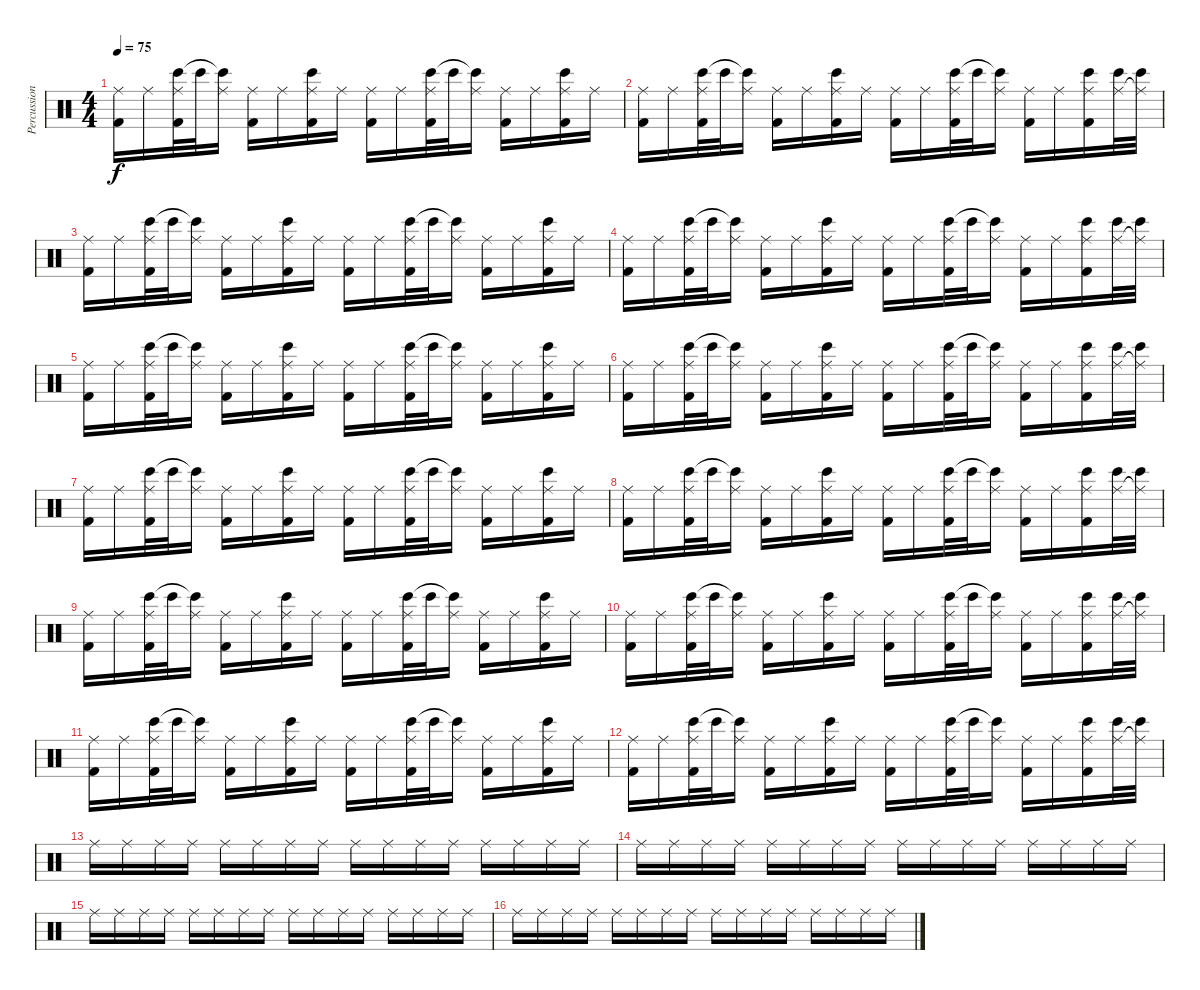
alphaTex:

\track ("Percussion" "Percussion") {instrument percussion}
\staff {score}
\articulation defaults
\ts (4 4)
\tempo 75
\clef neutral
\ks c
("Ride (middle)" "Kick (hit) 2").16{dy f} "Ride (middle)".16 ("Ride (middle)" "Bongo High (hit)" "Kick (hit) 2").32 "Bongo High (hit)".32 ("Ride (middle)" "Bongo High (hit)"{t}).16 ("Ride (middle)" "Kick (hit) 2").16 "Ride (middle)".16 ("Ride (middle)" "Bongo High (hit)" "Kick (hit) 2").16 "Ride (middle)".16 ("Ride (middle)" "Kick (hit) 2").16 "Ride (middle)".16 ("Ride (middle)" "Bongo High (hit)" "Kick (hit) 2").32 "Bongo High (hit)".32 ("Ride (middle)" "Bongo High (hit)"{t}).16 ("Ride (middle)" "Kick (hit) 2").16 "Ride (middle)".16 ("Ride (middle)" "Bongo High (hit)" "Kick (hit) 2").16 "Ride (middle)".16 |
("Ride (middle)" "Kick (hit) 2").16 "Ride (middle)".16 ("Ride (middle)" "Bongo High (hit)" "Kick (hit) 2").32 "Bongo High (hit)".32 ("Ride (middle)" "Bongo High (hit)"{t}).16 ("Ride (middle)" "Kick (hit) 2").16 "Ride (middle)".16 ("Ride (middle)" "Bongo High (hit)" "Kick (hit) 2").16 "Ride (middle)".16 ("Ride (middle)" "Kick (hit) 2").16 "Ride (middle)".16 ("Ride (middle)" "Bongo High (hit)" "Kick (hit) 2").32 "Bongo High (hit)".32 ("Ride (middle)" "Bongo High (hit)"{t}).16 ("Ride (middle)" "Kick (hit) 2").16 "Ride (middle)".16 ("Ride (middle)" "Bongo High (hit)" "Kick (hit) 2").16 ("Ride (middle)" "Bongo High (hit)").32 ("Ride (middle)"{t} "Bongo High (hit)").32 |
("Ride (middle)" "Kick (hit) 2").16 "Ride (middle)".16 ("Ride (middle)" "Bongo High (hit)" "Kick (hit) 2").32 "Bongo High (hit)".32 ("Ride (middle)" "Bongo High (hit)"{t}).16 ("Ride (middle)" "Kick (hit) 2").16 "Ride (middle)".16 ("Ride (middle)" "Bongo High (hit)" "Kick (hit) 2").16 "Ride (middle)".16 ("Ride (middle)" "Kick (hit) 2").16 "Ride (middle)".16 ("Ride (middle)" "Bongo High (hit)" "Kick (hit) 2").32 "Bongo High (hit)".32 ("Ride (middle)" "Bongo High (hit)"{t}).16 ("Ride (middle)" "Kick (hit) 2").16 "Ride (middle)".16 ("Ride (middle)" "Bongo High (hit)" "Kick (hit) 2").16 "Ride (middle)".16 |
("Ride (middle)" "Kick (hit) 2").16 "Ride (middle)".16 ("Ride (middle)" "Bongo High (hit)" "Kick (hit) 2").32 "Bongo High (hit)".32 ("Ride (middle)" "Bongo High (hit)"{t}).16 ("Ride (middle)" "Kick (hit) 2").16 "Ride (middle)".16 ("Ride (middle)" "Bongo High (hit)" "Kick (hit) 2").16 "Ride (middle)".16 ("Ride (middle)" "Kick (hit) 2").16 "Ride (middle)".16 ("Ride (middle)" "Bongo High (hit)" "Kick (hit) 2").32 "Bongo High (hit)".32 ("Ride (middle)" "Bongo High (hit)"{t}).16 ("Ride (middle)" "Kick (hit) 2").16 "Ride (middle)".16 ("Ride (middle)" "Bongo High (hit)" "Kick (hit) 2").16 ("Ride (middle)" "Bongo High (hit)").32 ("Ride (middle)"{t} "Bongo High (hit)").32 |
("Ride (middle)" "Kick (hit) 2").16 "Ride (middle)".16 ("Ride (middle)" "Bongo High (hit)" "Kick (hit) 2").32 "Bongo High (hit)".32 ("Ride (middle)" "Bongo High (hit)"{t}).16 ("Ride (middle)" "Kick (hit) 2").16 "Ride (middle)".16 ("Ride (middle)" "Bongo High (hit)" "Kick (hit) 2").16 "Ride (middle)".16 ("Ride (middle)" "Kick (hit) 2").16 "Ride (middle)".16 ("Ride (middle)" "Bongo High (hit)" "Kick (hit) 2").32 "Bongo High (hit)".32 ("Ride (middle)" "Bongo High (hit)"{t}).16 ("Ride (middle)" "Kick (hit) 2").16 "Ride (middle)".16 ("Ride (middle)" "Bongo High (hit)" "Kick (hit) 2").16 "Ride (middle)".16 |
("Ride (middle)" "Kick (hit) 2").16 "Ride (middle)".16 ("Ride (middle)" "Bongo High (hit)" "Kick (hit) 2").32 "Bongo High (hit)".32 ("Ride (middle)" "Bongo High (hit)"{t}).16 ("Ride (middle)" "Kick (hit) 2").16 "Ride (middle)".16 ("Ride (middle)" "Bongo High (hit)" "Kick (hit) 2").16 "Ride (middle)".16 ("Ride (middle)" "Kick (hit) 2").16 "Ride (middle)".16 ("Ride (middle)" "Bongo High (hit)" "Kick (hit) 2").32 "Bongo High (hit)".32 ("Ride (middle)" "Bongo High (hit)"{t}).16 ("Ride (middle)" "Kick (hit) 2").16 "Ride (middle)".16 ("Ride (middle)" "Bongo High (hit)" "Kick (hit) 2").16 ("Ride (middle)" "Bongo High (hit)").32 ("Ride (middle)"{t} "Bongo High (hit)").32 |
("Ride (middle)" "Kick (hit) 2").16 "Ride (middle)".16 ("Ride (middle)" "Bongo High (hit)" "Kick (hit) 2").32 "Bongo High (hit)".32 ("Ride (middle)" "Bongo High (hit)"{t}).16 ("Ride (middle)" "Kick (hit) 2").16 "Ride (middle)".16 ("Ride (middle)" "Bongo High (hit)" "Kick (hit) 2").16 "Ride (middle)".16 ("Ride (middle)" "Kick (hit) 2").16 "Ride (middle)".16 ("Ride (middle)" "Bongo High (hit)" "Kick (hit) 2").32 "Bongo High (hit)".32 ("Ride (middle)" "Bongo High (hit)"{t}).16 ("Ride (middle)" "Kick (hit) 2").16 "Ride (middle)".16 ("Ride (middle)" "Bongo High (hit)" "Kick (hit) 2").16 "Ride (middle)".16 |
("Ride (middle)" "Kick (hit) 2").16 "Ride (middle)".16 ("Ride (middle)" "Bongo High (hit)" "Kick (hit) 2").32 "Bongo High (hit)".32 ("Ride (middle)" "Bongo High (hit)"{t}).16 ("Ride (middle)" "Kick (hit) 2").16 "Ride (middle)".16 ("Ride (middle)" "Bongo High (hit)" "Kick (hit) 2").16 "Ride (middle)".16 ("Ride (middle)" "Kick (hit) 2").16 "Ride (middle)".16 ("Ride (middle)" "Bongo High (hit)" "Kick (hit) 2").32 "Bongo High (hit)".32 ("Ride (middle)" "Bongo High (hit)"{t}).16 ("Ride (middle)" "Kick (hit) 2").16 "Ride (middle)".16 ("Ride (middle)" "Bongo High (hit)" "Kick (hit) 2").16 ("Ride (middle)" "Bongo High (hit)").32 ("Ride (middle)"{t} "Bongo High (hit)").32 |
("Ride (middle)" "Kick (hit) 2").16 "Ride (middle)".16 ("Ride (middle)" "Bongo High (hit)" "Kick (hit) 2").32 "Bongo High (hit)".32 ("Ride (middle)" "Bongo High (hit)"{t}).16 ("Ride (middle)" "Kick (hit) 2").16 "Ride (middle)".16 ("Ride (middle)" "Bongo High (hit)" "Kick (hit) 2").16 "Ride (middle)".16 ("Ride (middle)" "Kick (hit) 2").16 "Ride (middle)".16 ("Ride (middle)" "Bongo High (hit)" "Kick (hit) 2").32 "Bongo High (hit)".32 ("Ride (middle)" "Bongo High (hit)"{t}).16 ("Ride (middle)" "Kick (hit) 2").16 "Ride (middle)".16 ("Ride (middle)" "Bongo High (hit)" "Kick (hit) 2").16 "Ride (middle)".16 |
("Ride (middle)" "Kick (hit) 2").16 "Ride (middle)".16 ("Ride (middle)" "Bongo High (hit)" "Kick (hit) 2").32 "Bongo High (hit)".32 ("Ride (middle)" "Bongo High (hit)"{t}).16 ("Ride (middle)" "Kick (hit) 2").16 "Ride (middle)".16 ("Ride (middle)" "Bongo High (hit)" "Kick (hit) 2").16 "Ride (middle)".16 ("Ride (middle)" "Kick (hit) 2").16 "Ride (middle)".16 ("Ride (middle)" "Bongo High (hit)" "Kick (hit) 2").32 "Bongo High (hit)".32 ("Ride (middle)" "Bongo High (hit)"{t}).16 ("Ride (middle)" "Kick (hit) 2").16 "Ride (middle)".16 ("Ride (middle)" "Bongo High (hit)" "Kick (hit) 2").16 ("Ride (middle)" "Bongo High (hit)").32 ("Ride (middle)"{t} "Bongo High (hit)").32 |
("Ride (middle)" "Kick (hit) 2").16 "Ride (middle)".16 ("Ride (middle)" "Bongo High (hit)" "Kick (hit) 2").32 "Bongo High (hit)".32 ("Ride (middle)" "Bongo High (hit)"{t}).16 ("Ride (middle)" "Kick (hit) 2").16 "Ride (middle)".16 ("Ride (middle)" "Bongo High (hit)" "Kick (hit) 2").16 "Ride (middle)".16 ("Ride (middle)" "Kick (hit) 2").16 "Ride (middle)".16 ("Ride (middle)" "Bongo High (hit)" "Kick (hit) 2").32 "Bongo High (hit)".32 ("Ride (middle)" "Bongo High (hit)"{t}).16 ("Ride (middle)" "Kick (hit) 2").16 "Ride (middle)".16 ("Ride (middle)" "Bongo High (hit)" "Kick (hit) 2").16 "Ride (middle)".16 |
("Ride (middle)" "Kick (hit) 2").16 "Ride (middle)".16 ("Ride (middle)" "Bongo High (hit)" "Kick (hit) 2").32 "Bongo High (hit)".32 ("Ride (middle)" "Bongo High (hit)"{t}).16 ("Ride (middle)" "Kick (hit) 2").16 "Ride (middle)".16 ("Ride (middle)" "Bongo High (hit)" "Kick (hit) 2").16 "Ride (middle)".16 ("Ride (middle)" "Kick (hit) 2").16 "Ride (middle)".16 ("Ride (middle)" "Bongo High (hit)" "Kick (hit) 2").32 "Bongo High (hit)".32 ("Ride (middle)" "Bongo High (hit)"{t}).16 ("Ride (middle)" "Kick (hit) 2").16 "Ride (middle)".16 ("Ride (middle)" "Bongo High (hit)" "Kick (hit) 2").16 ("Ride (middle)" "Bongo High (hit)").32 ("Ride (middle)"{t} "Bongo High (hit)").32 |
"Ride (middle)".16 "Ride (middle)".16 "Ride (middle)".16 "Ride (middle)".16 "Ride (middle)".16 "Ride (middle)".16 "Ride (middle)".16 "Ride (middle)".16 "Ride (middle)".16 "Ride (middle)".16 "Ride (middle)".16 "Ride (middle)".16 "Ride (middle)".16 "Ride (middle)".16 "Ride (middle)".16 "Ride (middle)".16 |
"Ride (middle)".16 "Ride (middle)".16 "Ride (middle)".16 "Ride (middle)".16 "Ride (middle)".16 "Ride (middle)".16 "Ride (middle)".16 "Ride (middle)".16 "Ride (middle)".16 "Ride (middle)".16 "Ride (middle)".16 "Ride (middle)".16 "Ride (middle)".16 "Ride (middle)".16 "Ride (middle)".16 "Ride (middle)".16 |
"Ride (middle)".16 "Ride (middle)".16 "Ride (middle)".16 "Ride (middle)".16 "Ride (middle)".16 "Ride (middle)".16 "Ride (middle)".16 "Ride (middle)".16 "Ride (middle)".16 "Ride (middle)".16 "Ride (middle)".16 "Ride (middle)".16 "Ride (middle)".16 "Ride (middle)".16 "Ride (middle)".16 "Ride (middle)".16 |
"Ride (middle)".16 "Ride (middle)".16 "Ride (middle)".16 "Ride (middle)".16 "Ride (middle)".16 "Ride (middle)".16 "Ride (middle)".16 "Ride (middle)".16 "Ride (middle)".16 "Ride (middle)".16 "Ride (middle)".16 "Ride (middle)".16 "Ride (middle)".16 "Ride (middle)".16 "Ride (middle)".16 "Ride (middle)".16
